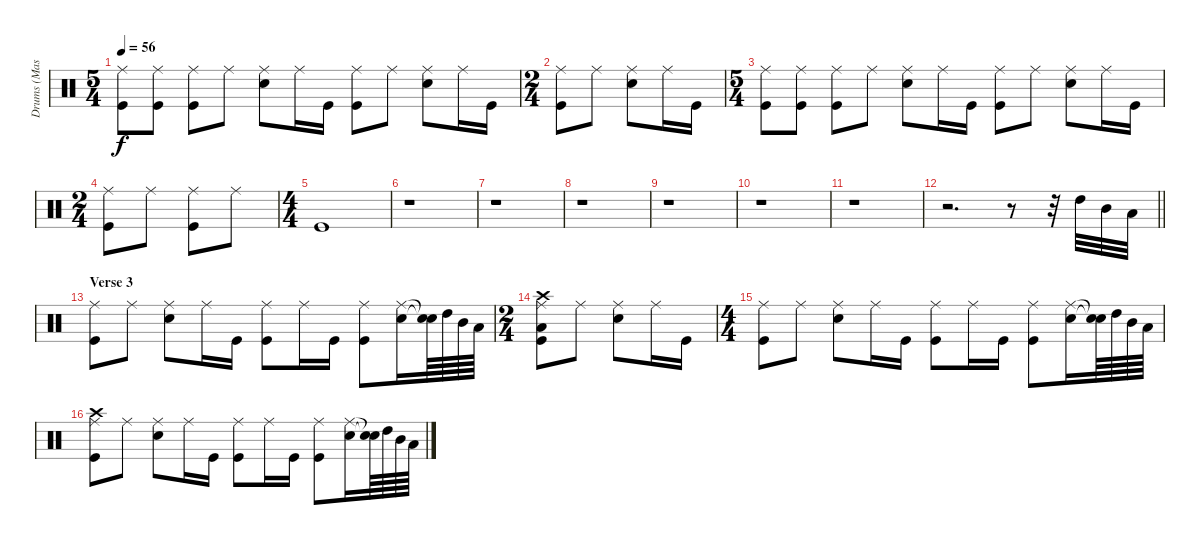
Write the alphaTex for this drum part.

\track ("Drums (Mason)" "Drums (Mas") {instrument percussion}
\staff {score}
\articulation defaults
\ts (5 4)
\tempo 56
\clef neutral
\ks c
("Ride (middle)" "Kick (hit)").8{dy f} ("Ride (middle)" "Kick (hit)").8 ("Ride (middle)" "Kick (hit)").8 "Ride (middle)".8 ("Ride (middle)" "Snare (hit) 2").8 "Ride (middle)".16 "Kick (hit)".16 ("Ride (middle)" "Kick (hit)").8 "Ride (middle)".8 ("Ride (middle)" "Snare (hit) 2").8 "Ride (middle)".16 "Kick (hit)".16 |
\ts (2 4)
("Ride (middle)" "Kick (hit)").8 "Ride (middle)".8 ("Ride (middle)" "Snare (hit) 2").8 "Ride (middle)".16 "Kick (hit)".16 |
\ts (5 4)
("Ride (middle)" "Kick (hit)").8 ("Ride (middle)" "Kick (hit)").8 ("Ride (middle)" "Kick (hit)").8 "Ride (middle)".8 ("Ride (middle)" "Snare (hit) 2").8 "Ride (middle)".16 "Kick (hit)".16 ("Ride (middle)" "Kick (hit)").8 "Ride (middle)".8 ("Ride (middle)" "Snare (hit) 2").8 "Ride (middle)".16 "Kick (hit)".16 |
\ts (2 4)
("Ride (middle)" "Kick (hit)").8 "Ride (middle)".8 ("Ride (middle)" "Kick (hit)").8 "Ride (middle)".8 |
\ts (4 4)
"Kick (hit)".1 |
r.1 |
r.1 |
r.1 |
r.1 |
r.1 |
r.1 |
\barLineRight lightlight
r.2{d} r.8 r.32 "High Tom (hit)".32 "Mid Tom (hit)".32 "Low Tom (hit)".32 |
\section ("" "Verse 3")
("Ride (middle)" "Kick (hit)").8 "Ride (middle)".8 ("Ride (middle)" "Snare (hit) 2").8 "Ride (middle)".16 "Kick (hit)".16 ("Ride (middle)" "Kick (hit)").8 "Ride (middle)".16 "Kick (hit)".16 ("Ride (middle)" "Kick (hit)").8 ("Ride (middle)" "Snare (hit) 2").16 ("Snare (hit)"{t} "Snare (hit)"{t}).64 "High Tom (hit)".64 "Mid Tom (hit)".64 "Low Tom (hit)".64 |
\ts (2 4)
("Ride (middle)" "Crash high (hit)" "Low Floor Tom (hit)" "Kick (hit)").8 "Ride (middle)".8 ("Ride (middle)" "Snare (hit) 2").8 "Ride (middle)".16 "Kick (hit)".16 |
\ts (4 4)
("Ride (middle)" "Kick (hit)").8 "Ride (middle)".8 ("Ride (middle)" "Snare (hit) 2").8 "Ride (middle)".16 "Kick (hit)".16 ("Ride (middle)" "Kick (hit)").8 "Ride (middle)".16 "Kick (hit)".16 ("Ride (middle)" "Kick (hit)").8 ("Ride (middle)" "Snare (hit) 2").16 ("Snare (hit)"{t} "Snare (hit)"{t}).64 "High Tom (hit)".64 "Mid Tom (hit)".64 "Low Tom (hit)".64 |
("Ride (middle)" "Crash high (hit)" "Kick (hit)").8 "Ride (middle)".8 ("Ride (middle)" "Snare (hit) 2").8 "Ride (middle)".16 "Kick (hit)".16 ("Ride (middle)" "Kick (hit)").8 "Ride (middle)".16 "Kick (hit)".16 ("Ride (middle)" "Kick (hit)").8 ("Ride (middle)" "Snare (hit) 2").16 ("Snare (hit)"{t} "Snare (hit)"{t}).64 "High Tom (hit)".64 "Mid Tom (hit)".64 "Low Tom (hit)".64
